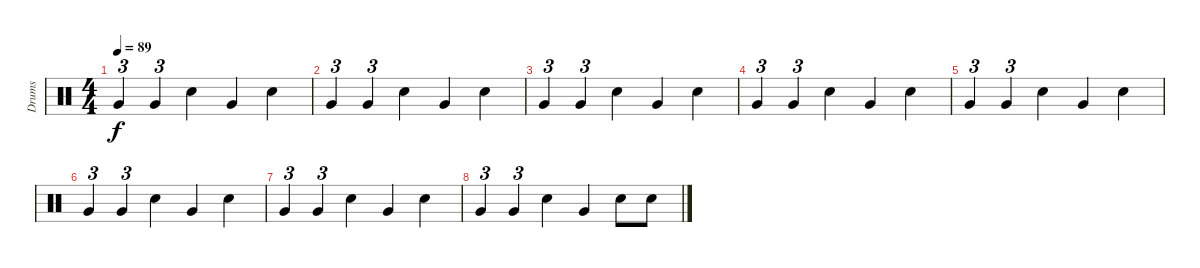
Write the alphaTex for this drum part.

\track ("Drums" "Drums") {instrument percussion}
\staff {score}
\articulation defaults
\ts (4 4)
\tempo 89
\clef neutral
\ks c "Very Low Tom (hit)".4{tu (3 2) dy f} "Very Low Tom (hit)".4{tu (3 2)} "Electric Snare (hit)".4 "Very Low Tom (hit)".4 "Electric Snare (hit)".4
|
"Very Low Tom (hit)".4{tu (3 2)} "Very Low Tom (hit)".4{tu (3 2)} "Electric Snare (hit)".4 "Very Low Tom (hit)".4 "Electric Snare (hit)".4 |
"Very Low Tom (hit)".4{tu (3 2)} "Very Low Tom (hit)".4{tu (3 2)} "Electric Snare (hit)".4 "Very Low Tom (hit)".4 "Electric Snare (hit)".4 |
"Very Low Tom (hit)".4{tu (3 2)} "Very Low Tom (hit)".4{tu (3 2)} "Electric Snare (hit)".4 "Very Low Tom (hit)".4 "Electric Snare (hit)".4 |
"Very Low Tom (hit)".4{tu (3 2)} "Very Low Tom (hit)".4{tu (3 2)} "Electric Snare (hit)".4 "Very Low Tom (hit)".4 "Electric Snare (hit)".4 |
"Very Low Tom (hit)".4{tu (3 2)} "Very Low Tom (hit)".4{tu (3 2)} "Electric Snare (hit)".4 "Very Low Tom (hit)".4 "Electric Snare (hit)".4 |
"Very Low Tom (hit)".4{tu (3 2)} "Very Low Tom (hit)".4{tu (3 2)} "Electric Snare (hit)".4 "Very Low Tom (hit)".4 "Electric Snare (hit)".4 |
"Very Low Tom (hit)".4{tu (3 2)} "Very Low Tom (hit)".4{tu (3 2)} "Electric Snare (hit)".4 "Very Low Tom (hit)".4 "Electric Snare (hit)".8 "Electric Snare (hit)".8
